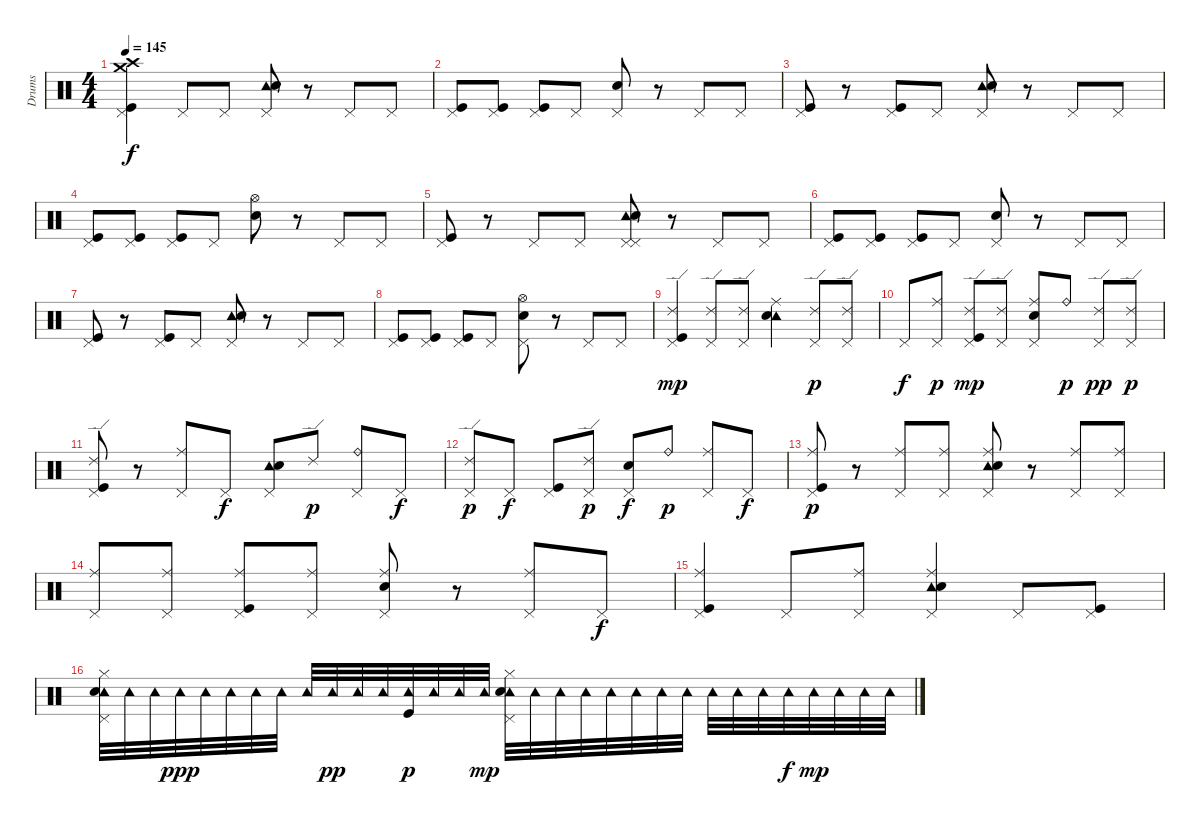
\track ("Drums" "Drums") {instrument percussion}
\staff {score}
\articulation defaults
\ts (4 4)
\tempo 145
\clef neutral
\ks c
("Crash high (hit)" "Pedal Hi-Hat (hit)" "Crash medium (hit)" "Kick (hit)").4{dy f} "Pedal Hi-Hat (hit)".8 "Pedal Hi-Hat (hit)".8 ("Pedal Hi-Hat (hit)" "Tambourine (hit)" "Electric Snare (hit)").8 r.8 "Pedal Hi-Hat (hit)".8 "Pedal Hi-Hat (hit)".8 |
("Kick (hit)" "Pedal Hi-Hat (hit)").8 ("Kick (hit)" "Pedal Hi-Hat (hit)").8 ("Pedal Hi-Hat (hit)" "Kick (hit)").8 "Pedal Hi-Hat (hit)".8 ("Pedal Hi-Hat (hit)" "Electric Snare (hit)").8 r.8 "Pedal Hi-Hat (hit)".8 "Pedal Hi-Hat (hit)".8 |
("Pedal Hi-Hat (hit)" "Kick (hit)").8 r.8 ("Kick (hit)" "Pedal Hi-Hat (hit)").8 "Pedal Hi-Hat (hit)".8 ("Pedal Hi-Hat (hit)" "Tambourine (hit)" "Electric Snare (hit)").8 r.8 "Pedal Hi-Hat (hit)".8 "Pedal Hi-Hat (hit)".8 |
("Kick (hit)" "Pedal Hi-Hat (hit)").8 ("Kick (hit)" "Pedal Hi-Hat (hit)").8 ("Pedal Hi-Hat (hit)" "Kick (hit)").8 "Pedal Hi-Hat (hit)".8 ("Hi-Hat (open)" "Electric Snare (hit)").8 r.8 "Pedal Hi-Hat (hit)".8 "Pedal Hi-Hat (hit)".8 |
("Pedal Hi-Hat (hit)" "Kick (hit)").8 r.8 "Pedal Hi-Hat (hit)".8 "Pedal Hi-Hat (hit)".8 ("Pedal Hi-Hat (hit)" "Pedal Hi-Hat (hit)" "Tambourine (hit)" "Electric Snare (hit)").8 r.8 "Pedal Hi-Hat (hit)".8 "Pedal Hi-Hat (hit)".8 |
("Kick (hit)" "Pedal Hi-Hat (hit)").8 ("Kick (hit)" "Pedal Hi-Hat (hit)").8 ("Pedal Hi-Hat (hit)" "Kick (hit)").8 "Pedal Hi-Hat (hit)".8 ("Pedal Hi-Hat (hit)" "Electric Snare (hit)").8 r.8 "Pedal Hi-Hat (hit)".8 "Pedal Hi-Hat (hit)".8 |
("Pedal Hi-Hat (hit)" "Kick (hit)").8 r.8 ("Kick (hit)" "Pedal Hi-Hat (hit)").8 "Pedal Hi-Hat (hit)".8 ("Pedal Hi-Hat (hit)" "Tambourine (hit)" "Electric Snare (hit)").8 r.8 "Pedal Hi-Hat (hit)".8 "Pedal Hi-Hat (hit)".8 |
("Kick (hit)" "Pedal Hi-Hat (hit)").8 ("Kick (hit)" "Pedal Hi-Hat (hit)").8 ("Pedal Hi-Hat (hit)" "Kick (hit)").8 "Pedal Hi-Hat (hit)".8 ("Pedal Hi-Hat (hit)" "Hi-Hat (open)" "Electric Snare (hit)").8 r.8 "Pedal Hi-Hat (hit)".8 "Pedal Hi-Hat (hit)".8 |
("Pedal Hi-Hat (hit)" "Ride (edge) 2" "Kick (hit)").4{dy mp} ("Pedal Hi-Hat (hit)" "Ride (edge) 2").8 ("Pedal Hi-Hat (hit)" "Ride (edge) 2").8 ("Tambourine (hit)" "Ride (middle)" "Electric Snare (hit)").4 ("Pedal Hi-Hat (hit)" "Ride (edge) 2").8{dy p} ("Pedal Hi-Hat (hit)" "Ride (edge) 2").8 |
"Pedal Hi-Hat (hit)".8{dy f} ("Pedal Hi-Hat (hit)" "Ride (middle)").8{dy p} ("Pedal Hi-Hat (hit)" "Ride (edge) 2" "Kick (hit)").8{dy mp} ("Pedal Hi-Hat (hit)" "Ride (edge) 2").8 ("Pedal Hi-Hat (hit)" "Ride (middle)" "Electric Snare (hit)").8 "Ride (bell)".8{dy p} ("Pedal Hi-Hat (hit)" "Ride (edge) 2").8{dy pp} ("Pedal Hi-Hat (hit)" "Ride (edge) 2").8{dy p} |
("Pedal Hi-Hat (hit)" "Ride (edge) 2" "Kick (hit)").8 r.8 ("Pedal Hi-Hat (hit)" "Ride (middle)").8 "Pedal Hi-Hat (hit)".8{dy f} ("Pedal Hi-Hat (hit)" "Tambourine (hit)" "Electric Snare (hit)").8 "Ride (edge) 2".8{dy p} ("Pedal Hi-Hat (hit)" "Ride (bell)").8 "Pedal Hi-Hat (hit)".8{dy f} |
("Pedal Hi-Hat (hit)" "Ride (edge) 2").8{dy p} "Pedal Hi-Hat (hit)".8{dy f} ("Pedal Hi-Hat (hit)" "Kick (hit)").8 ("Pedal Hi-Hat (hit)" "Ride (edge) 2").8{dy p} ("Pedal Hi-Hat (hit)" "Electric Snare (hit)").8{dy f} "Ride (bell)".8{dy p} ("Pedal Hi-Hat (hit)" "Ride (middle)").8 "Pedal Hi-Hat (hit)".8{dy f} |
("Pedal Hi-Hat (hit)" "Ride (middle)" "Kick (hit)").8{dy p} r.8 ("Pedal Hi-Hat (hit)" "Ride (middle)").8 ("Pedal Hi-Hat (hit)" "Ride (middle)").8 ("Pedal Hi-Hat (hit)" "Tambourine (hit)" "Ride (middle)" "Electric Snare (hit)").8 r.8 ("Pedal Hi-Hat (hit)" "Ride (middle)").8 ("Pedal Hi-Hat (hit)" "Ride (middle)").8 |
("Pedal Hi-Hat (hit)" "Ride (middle)").8 ("Pedal Hi-Hat (hit)" "Ride (middle)").8 ("Pedal Hi-Hat (hit)" "Ride (middle)" "Kick (hit)").8 ("Pedal Hi-Hat (hit)" "Ride (middle)").8 ("Pedal Hi-Hat (hit)" "Ride (middle)" "Electric Snare (hit)").8 r.8 ("Pedal Hi-Hat (hit)" "Ride (middle)").8 "Pedal Hi-Hat (hit)".8{dy f} |
("Pedal Hi-Hat (hit)" "Ride (middle)" "Kick (hit)").4 "Pedal Hi-Hat (hit)".8 ("Pedal Hi-Hat (hit)" "Ride (middle)").8 ("Tambourine (hit)" "Pedal Hi-Hat (hit)" "Ride (middle)" "Electric Snare (hit)").4 "Pedal Hi-Hat (hit)".8 ("Kick (hit)" "Pedal Hi-Hat (hit)").8 |
("Tambourine (hit)" "Pedal Hi-Hat (hit)" "Hi-Hat (closed)" "Electric Snare (hit)").32 "Tambourine (hit)".32 "Tambourine (hit)".32 "Tambourine (hit)".32{dy ppp} "Tambourine (hit)".32 "Tambourine (hit)".32 "Tambourine (hit)".32 "Tambourine (hit)".32 "Tambourine (hit)".32 "Tambourine (hit)".32{dy pp} "Tambourine (hit)".32 "Tambourine (hit)".32 ("Tambourine (hit)" "Kick (hit)").32{dy p} "Tambourine (hit)".32 "Tambourine (hit)".32 "Tambourine (hit)".32{dy mp} ("Tambourine (hit)" "Pedal Hi-Hat (hit)" "Hi-Hat (closed)" "Electric Snare (hit)").32 "Tambourine (hit)".32 "Tambourine (hit)".32 "Tambourine (hit)".32 "Tambourine (hit)".32 "Tambourine (hit)".32 "Tambourine (hit)".32 "Tambourine (hit)".32 "Tambourine (hit)".32 "Tambourine (hit)".32 "Tambourine (hit)".32 "Tambourine (hit)".32{dy f} "Tambourine (hit)".32{dy mp} "Tambourine (hit)".32 "Tambourine (hit)".32 "Tambourine (hit)".32
